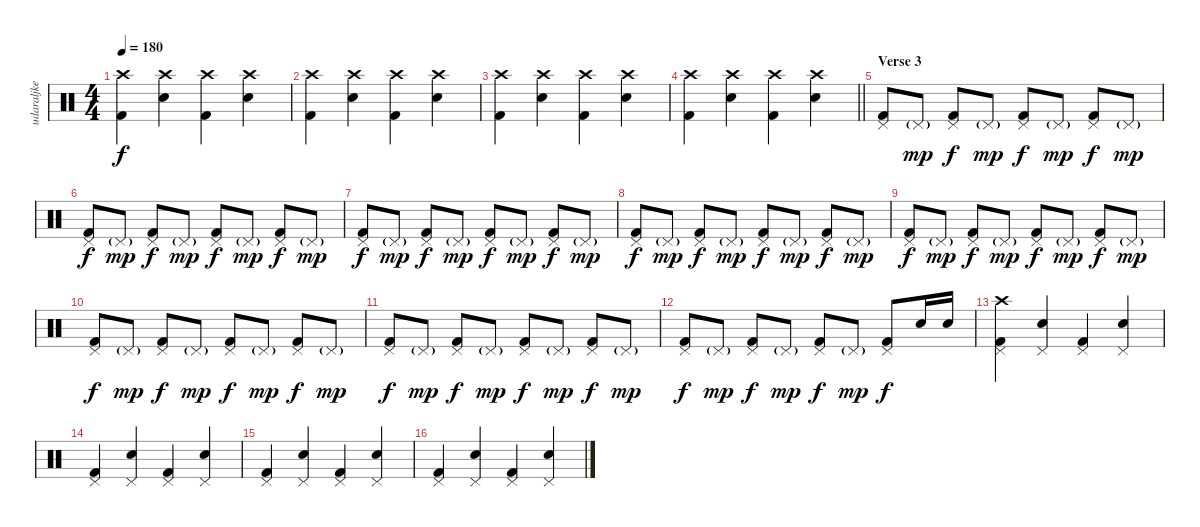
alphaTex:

\track ("udaraljke" "udaraljke") {instrument percussion}
\staff {score}
\articulation defaults
\ts (4 4)
\tempo 180
\clef neutral
\ks c
("Crash high (hit)" "Kick (hit) 2").4{dy f} ("Crash high (hit)" "Snare (hit) 2").4 ("Crash high (hit)" "Kick (hit) 2").4 ("Crash high (hit)" "Snare (hit) 2").4 |
("Crash high (hit)" "Kick (hit) 2").4 ("Crash high (hit)" "Snare (hit) 2").4 ("Crash high (hit)" "Kick (hit) 2").4 ("Crash high (hit)" "Snare (hit) 2").4 |
("Crash high (hit)" "Kick (hit) 2").4 ("Crash high (hit)" "Snare (hit) 2").4 ("Crash high (hit)" "Kick (hit) 2").4 ("Crash high (hit)" "Snare (hit) 2").4 |
\barLineRight lightlight
("Crash high (hit)" "Kick (hit) 2").4 ("Crash high (hit)" "Snare (hit) 2").4 ("Crash high (hit)" "Kick (hit) 2").4 ("Crash high (hit)" "Snare (hit) 2").4 |
\section ("" "Verse 3")
("Pedal Hi-Hat (hit)" "Kick (hit) 2").8 "Pedal Hi-Hat (hit)"{g}.8{dy mp} ("Pedal Hi-Hat (hit)" "Kick (hit) 2").8{dy f} "Pedal Hi-Hat (hit)"{g}.8{dy mp} ("Pedal Hi-Hat (hit)" "Kick (hit) 2").8{dy f} "Pedal Hi-Hat (hit)"{g}.8{dy mp} ("Pedal Hi-Hat (hit)" "Kick (hit) 2").8{dy f} "Pedal Hi-Hat (hit)"{g}.8{dy mp} |
("Pedal Hi-Hat (hit)" "Kick (hit) 2").8{dy f} "Pedal Hi-Hat (hit)"{g}.8{dy mp} ("Pedal Hi-Hat (hit)" "Kick (hit) 2").8{dy f} "Pedal Hi-Hat (hit)"{g}.8{dy mp} ("Pedal Hi-Hat (hit)" "Kick (hit) 2").8{dy f} "Pedal Hi-Hat (hit)"{g}.8{dy mp} ("Pedal Hi-Hat (hit)" "Kick (hit) 2").8{dy f} "Pedal Hi-Hat (hit)"{g}.8{dy mp} |
("Pedal Hi-Hat (hit)" "Kick (hit) 2").8{dy f} "Pedal Hi-Hat (hit)"{g}.8{dy mp} ("Pedal Hi-Hat (hit)" "Kick (hit) 2").8{dy f} "Pedal Hi-Hat (hit)"{g}.8{dy mp} ("Pedal Hi-Hat (hit)" "Kick (hit) 2").8{dy f} "Pedal Hi-Hat (hit)"{g}.8{dy mp} ("Pedal Hi-Hat (hit)" "Kick (hit) 2").8{dy f} "Pedal Hi-Hat (hit)"{g}.8{dy mp} |
("Pedal Hi-Hat (hit)" "Kick (hit) 2").8{dy f} "Pedal Hi-Hat (hit)"{g}.8{dy mp} ("Pedal Hi-Hat (hit)" "Kick (hit) 2").8{dy f} "Pedal Hi-Hat (hit)"{g}.8{dy mp} ("Pedal Hi-Hat (hit)" "Kick (hit) 2").8{dy f} "Pedal Hi-Hat (hit)"{g}.8{dy mp} ("Pedal Hi-Hat (hit)" "Kick (hit) 2").8{dy f} "Pedal Hi-Hat (hit)"{g}.8{dy mp} |
("Pedal Hi-Hat (hit)" "Kick (hit) 2").8{dy f} "Pedal Hi-Hat (hit)"{g}.8{dy mp} ("Pedal Hi-Hat (hit)" "Kick (hit) 2").8{dy f} "Pedal Hi-Hat (hit)"{g}.8{dy mp} ("Pedal Hi-Hat (hit)" "Kick (hit) 2").8{dy f} "Pedal Hi-Hat (hit)"{g}.8{dy mp} ("Pedal Hi-Hat (hit)" "Kick (hit) 2").8{dy f} "Pedal Hi-Hat (hit)"{g}.8{dy mp} |
("Pedal Hi-Hat (hit)" "Kick (hit) 2").8{dy f} "Pedal Hi-Hat (hit)"{g}.8{dy mp} ("Pedal Hi-Hat (hit)" "Kick (hit) 2").8{dy f} "Pedal Hi-Hat (hit)"{g}.8{dy mp} ("Pedal Hi-Hat (hit)" "Kick (hit) 2").8{dy f} "Pedal Hi-Hat (hit)"{g}.8{dy mp} ("Pedal Hi-Hat (hit)" "Kick (hit) 2").8{dy f} "Pedal Hi-Hat (hit)"{g}.8{dy mp} |
("Pedal Hi-Hat (hit)" "Kick (hit) 2").8{dy f} "Pedal Hi-Hat (hit)"{g}.8{dy mp} ("Pedal Hi-Hat (hit)" "Kick (hit) 2").8{dy f} "Pedal Hi-Hat (hit)"{g}.8{dy mp} ("Pedal Hi-Hat (hit)" "Kick (hit) 2").8{dy f} "Pedal Hi-Hat (hit)"{g}.8{dy mp} ("Pedal Hi-Hat (hit)" "Kick (hit) 2").8{dy f} "Pedal Hi-Hat (hit)"{g}.8{dy mp} |
("Pedal Hi-Hat (hit)" "Kick (hit) 2").8{dy f} "Pedal Hi-Hat (hit)"{g}.8{dy mp} ("Pedal Hi-Hat (hit)" "Kick (hit) 2").8{dy f} "Pedal Hi-Hat (hit)"{g}.8{dy mp} ("Pedal Hi-Hat (hit)" "Kick (hit) 2").8{dy f} "Pedal Hi-Hat (hit)"{g}.8{dy mp} ("Pedal Hi-Hat (hit)" "Kick (hit) 2").8{dy f} "Snare (hit) 2".16 "Snare (hit) 2".16 |
("Crash high (hit)" "Pedal Hi-Hat (hit)" "Kick (hit) 2").4 ("Pedal Hi-Hat (hit)" "Snare (hit) 2").4 ("Pedal Hi-Hat (hit)" "Kick (hit) 2").4 ("Pedal Hi-Hat (hit)" "Snare (hit) 2").4 |
("Pedal Hi-Hat (hit)" "Kick (hit) 2").4 ("Pedal Hi-Hat (hit)" "Snare (hit) 2").4 ("Pedal Hi-Hat (hit)" "Kick (hit) 2").4 ("Pedal Hi-Hat (hit)" "Snare (hit) 2").4 |
("Pedal Hi-Hat (hit)" "Kick (hit) 2").4 ("Pedal Hi-Hat (hit)" "Snare (hit) 2").4 ("Pedal Hi-Hat (hit)" "Kick (hit) 2").4 ("Pedal Hi-Hat (hit)" "Snare (hit) 2").4 |
("Pedal Hi-Hat (hit)" "Kick (hit) 2").4 ("Pedal Hi-Hat (hit)" "Snare (hit) 2").4 ("Pedal Hi-Hat (hit)" "Kick (hit) 2").4 ("Pedal Hi-Hat (hit)" "Snare (hit) 2").4
